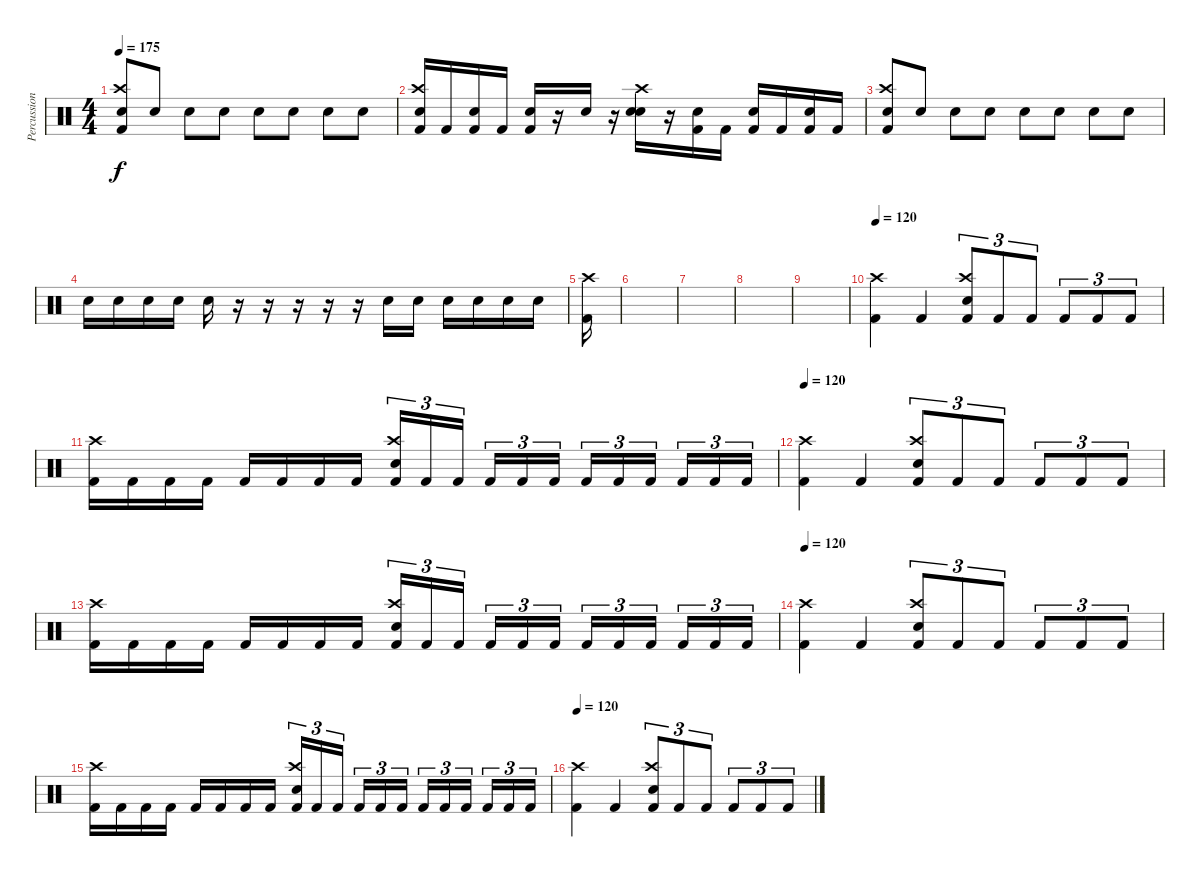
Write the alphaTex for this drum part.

\track ("Percussion" "Percussion") {instrument percussion}
\staff {score}
\articulation defaults
\ts (4 4)
\tempo 175
\clef neutral
\ks c
("Electric Snare (hit)" "Crash high (hit)" "Kick (hit) 2").8{dy f} "Electric Snare (hit)".8 "Electric Snare (hit)".8 "Electric Snare (hit)".8 "Electric Snare (hit)".8 "Electric Snare (hit)".8 "Electric Snare (hit)".8 "Electric Snare (hit)".8 |
("Electric Snare (hit)" "Crash high (hit)" "Kick (hit) 2").16 "Kick (hit) 2".16 ("Electric Snare (hit)" "Kick (hit) 2").16 "Kick (hit) 2".16 ("Electric Snare (hit)" "Kick (hit) 2").16 r.16 "Electric Snare (hit)".16 r.16 ("Electric Snare (hit)" "Crash high (hit)" "Electric Snare (hit)").16 r.16 ("Electric Snare (hit)" "Kick (hit) 2").16 "Kick (hit) 2".16 ("Electric Snare (hit)" "Kick (hit) 2").16 "Kick (hit) 2".16 ("Electric Snare (hit)" "Kick (hit) 2").16 "Kick (hit) 2".16 |
("Electric Snare (hit)" "Crash high (hit)" "Kick (hit) 2").8 "Electric Snare (hit)".8 "Electric Snare (hit)".8 "Electric Snare (hit)".8 "Electric Snare (hit)".8 "Electric Snare (hit)".8 "Electric Snare (hit)".8 "Electric Snare (hit)".8 |
"Electric Snare (hit)".16 "Electric Snare (hit)".16 "Electric Snare (hit)".16 "Electric Snare (hit)".16 "Electric Snare (hit)".16 r.16 r.16 r.16 r.16 r.16 "Electric Snare (hit)".16 "Electric Snare (hit)".16 "Electric Snare (hit)".16 "Electric Snare (hit)".16 "Electric Snare (hit)".16 "Electric Snare (hit)".16 |
("Crash high (hit)" "Kick (hit) 2").16 |
|
|
|
|
\tempo 120
("Crash high (hit)" "Kick (hit) 2").4 "Kick (hit) 2".4 ("Crash high (hit)" "Electric Snare (hit)" "Kick (hit) 2").8{tu (3 2)} "Kick (hit) 2".8{tu (3 2)} "Kick (hit) 2".8{tu (3 2)} "Kick (hit) 2".8{tu (3 2)} "Kick (hit) 2".8{tu (3 2)} "Kick (hit) 2".8{tu (3 2)} |
("Crash high (hit)" "Kick (hit) 2").16 "Kick (hit) 2".16 "Kick (hit) 2".16 "Kick (hit) 2".16 "Kick (hit) 2".16 "Kick (hit) 2".16 "Kick (hit) 2".16 "Kick (hit) 2".16 ("Electric Snare (hit)" "Crash high (hit)" "Kick (hit) 2").16{tu (3 2)} "Kick (hit) 2".16{tu (3 2)} "Kick (hit) 2".16{tu (3 2) beam splitsecondary} "Kick (hit) 2".16{tu (3 2)} "Kick (hit) 2".16{tu (3 2)} "Kick (hit) 2".16{tu (3 2)} "Kick (hit) 2".16{tu (3 2)} "Kick (hit) 2".16{tu (3 2)} "Kick (hit) 2".16{tu (3 2) beam splitsecondary} "Kick (hit) 2".16{tu (3 2)} "Kick (hit) 2".16{tu (3 2)} "Kick (hit) 2".16{tu (3 2)} |
\tempo 120
("Crash high (hit)" "Kick (hit) 2").4 "Kick (hit) 2".4 ("Crash high (hit)" "Electric Snare (hit)" "Kick (hit) 2").8{tu (3 2)} "Kick (hit) 2".8{tu (3 2)} "Kick (hit) 2".8{tu (3 2)} "Kick (hit) 2".8{tu (3 2)} "Kick (hit) 2".8{tu (3 2)} "Kick (hit) 2".8{tu (3 2)} |
("Crash high (hit)" "Kick (hit) 2").16 "Kick (hit) 2".16 "Kick (hit) 2".16 "Kick (hit) 2".16 "Kick (hit) 2".16 "Kick (hit) 2".16 "Kick (hit) 2".16 "Kick (hit) 2".16 ("Electric Snare (hit)" "Crash high (hit)" "Kick (hit) 2").16{tu (3 2)} "Kick (hit) 2".16{tu (3 2)} "Kick (hit) 2".16{tu (3 2) beam splitsecondary} "Kick (hit) 2".16{tu (3 2)} "Kick (hit) 2".16{tu (3 2)} "Kick (hit) 2".16{tu (3 2)} "Kick (hit) 2".16{tu (3 2)} "Kick (hit) 2".16{tu (3 2)} "Kick (hit) 2".16{tu (3 2) beam splitsecondary} "Kick (hit) 2".16{tu (3 2)} "Kick (hit) 2".16{tu (3 2)} "Kick (hit) 2".16{tu (3 2)} |
\tempo 120
("Crash high (hit)" "Kick (hit) 2").4 "Kick (hit) 2".4 ("Crash high (hit)" "Electric Snare (hit)" "Kick (hit) 2").8{tu (3 2)} "Kick (hit) 2".8{tu (3 2)} "Kick (hit) 2".8{tu (3 2)} "Kick (hit) 2".8{tu (3 2)} "Kick (hit) 2".8{tu (3 2)} "Kick (hit) 2".8{tu (3 2)} |
("Crash high (hit)" "Kick (hit) 2").16 "Kick (hit) 2".16 "Kick (hit) 2".16 "Kick (hit) 2".16 "Kick (hit) 2".16 "Kick (hit) 2".16 "Kick (hit) 2".16 "Kick (hit) 2".16 ("Electric Snare (hit)" "Crash high (hit)" "Kick (hit) 2").16{tu (3 2)} "Kick (hit) 2".16{tu (3 2)} "Kick (hit) 2".16{tu (3 2) beam splitsecondary} "Kick (hit) 2".16{tu (3 2)} "Kick (hit) 2".16{tu (3 2)} "Kick (hit) 2".16{tu (3 2)} "Kick (hit) 2".16{tu (3 2)} "Kick (hit) 2".16{tu (3 2)} "Kick (hit) 2".16{tu (3 2) beam splitsecondary} "Kick (hit) 2".16{tu (3 2)} "Kick (hit) 2".16{tu (3 2)} "Kick (hit) 2".16{tu (3 2)} |
\tempo 120
("Crash high (hit)" "Kick (hit) 2").4 "Kick (hit) 2".4 ("Crash high (hit)" "Electric Snare (hit)" "Kick (hit) 2").8{tu (3 2)} "Kick (hit) 2".8{tu (3 2)} "Kick (hit) 2".8{tu (3 2)} "Kick (hit) 2".8{tu (3 2)} "Kick (hit) 2".8{tu (3 2)} "Kick (hit) 2".8{tu (3 2)}
